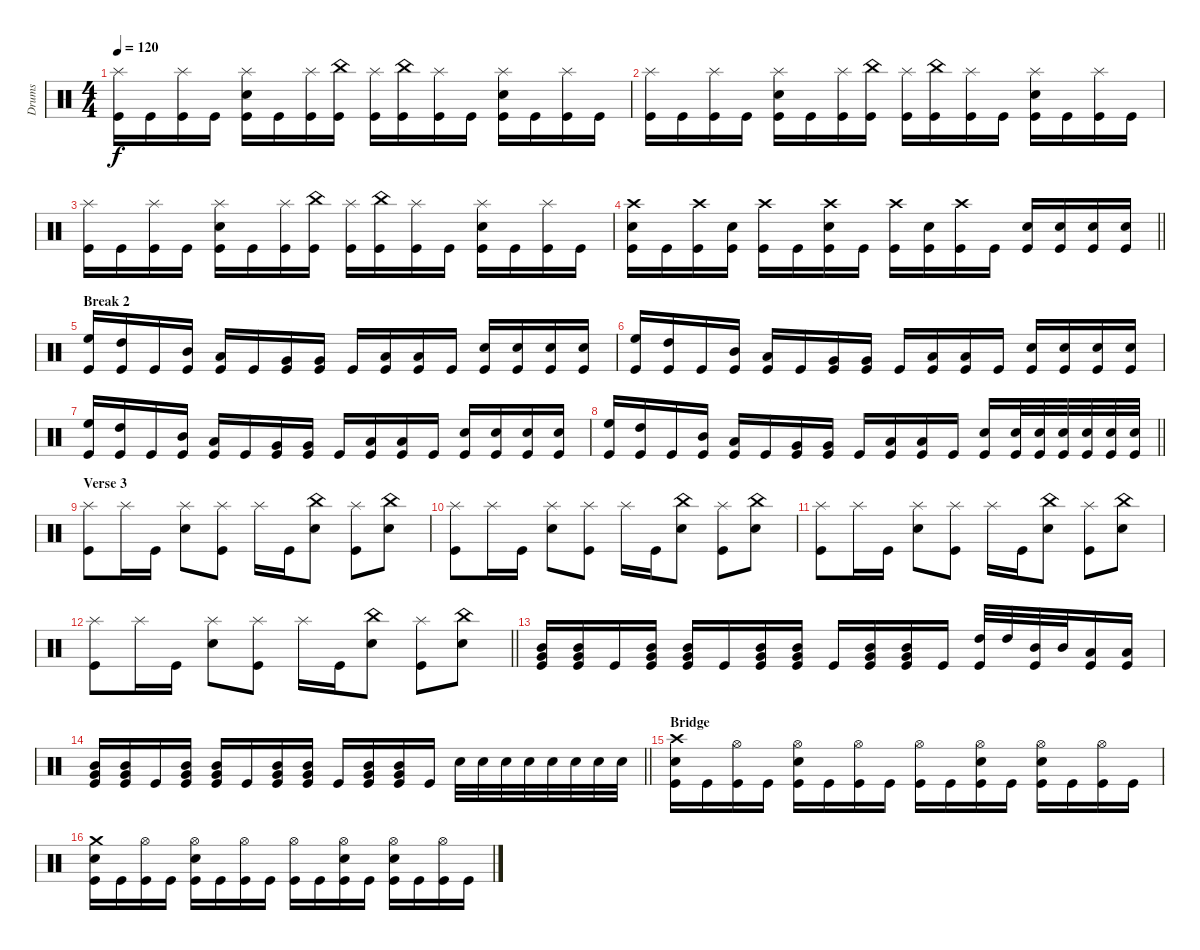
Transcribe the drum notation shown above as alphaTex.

\track ("Drums" "Drums") {instrument percussion}
\staff {score}
\articulation defaults
\ts (4 4)
\tempo 120
\clef neutral
\ks c
("Splash (hit)" "Kick (hit)").16{dy f} "Kick (hit)".16 ("Splash (hit)" "Kick (hit)").16 "Kick (hit)".16 ("Splash (hit)" "Snare (hit) 2" "Kick (hit)").16 "Kick (hit)".16 ("Splash (hit)" "Kick (hit)").16 ("China (hit)" "Kick (hit)").16 ("Splash (hit)" "Kick (hit)").16 ("China (hit)" "Kick (hit)").16 ("Splash (hit)" "Kick (hit)").16 "Kick (hit)".16 ("Splash (hit)" "Snare (hit) 2" "Kick (hit)").16 "Kick (hit)".16 ("Splash (hit)" "Kick (hit)").16 "Kick (hit)".16 |
("Splash (hit)" "Kick (hit)").16 "Kick (hit)".16 ("Splash (hit)" "Kick (hit)").16 "Kick (hit)".16 ("Splash (hit)" "Snare (hit) 2" "Kick (hit)").16 "Kick (hit)".16 ("Splash (hit)" "Kick (hit)").16 ("China (hit)" "Kick (hit)").16 ("Splash (hit)" "Kick (hit)").16 ("China (hit)" "Kick (hit)").16 ("Splash (hit)" "Kick (hit)").16 "Kick (hit)".16 ("Splash (hit)" "Snare (hit) 2" "Kick (hit)").16 "Kick (hit)".16 ("Splash (hit)" "Kick (hit)").16 "Kick (hit)".16 |
("Splash (hit)" "Kick (hit)").16 "Kick (hit)".16 ("Splash (hit)" "Kick (hit)").16 "Kick (hit)".16 ("Splash (hit)" "Snare (hit) 2" "Kick (hit)").16 "Kick (hit)".16 ("Splash (hit)" "Kick (hit)").16 ("China (hit)" "Kick (hit)").16 ("Splash (hit)" "Kick (hit)").16 ("China (hit)" "Kick (hit)").16 ("Splash (hit)" "Kick (hit)").16 "Kick (hit)".16 ("Splash (hit)" "Snare (hit) 2" "Kick (hit)").16 "Kick (hit)".16 ("Splash (hit)" "Kick (hit)").16 "Kick (hit)".16 |
\barLineRight lightlight
("Crash high (hit)" "Snare (hit) 2" "Kick (hit)").16 "Kick (hit)".16 ("Crash high (hit)" "Kick (hit)").16 ("Snare (hit) 2" "Kick (hit)").16 ("Crash high (hit)" "Kick (hit)").16 "Kick (hit)".16 ("Crash high (hit)" "Snare (hit) 2" "Kick (hit)").16 "Kick (hit)".16 ("Crash high (hit)" "Kick (hit)").16 ("Snare (hit) 2" "Kick (hit)").16 ("Crash high (hit)" "Kick (hit)").16 "Kick (hit)".16 ("Snare (hit) 2" "Kick (hit)").16 ("Snare (hit) 2" "Kick (hit)").16 ("Snare (hit) 2" "Kick (hit)").16 ("Snare (hit) 2" "Kick (hit)").16 |
\section ("" "Break 2")
("High Floor Tom (hit)" "Kick (hit)").16 ("High Tom (hit)" "Kick (hit)").16 "Kick (hit)".16 ("Mid Tom (hit)" "Kick (hit)").16 ("Low Tom (hit)" "Kick (hit)").16 "Kick (hit)".16 ("Very Low Tom (hit)" "Kick (hit)").16 ("Very Low Tom (hit)" "Kick (hit)").16 "Kick (hit)".16 ("Low Floor Tom (hit)" "Kick (hit)").16 ("Low Floor Tom (hit)" "Kick (hit)").16 "Kick (hit)".16 ("Snare (hit) 2" "Kick (hit)").16 ("Snare (hit) 2" "Kick (hit)").16 ("Snare (hit) 2" "Kick (hit)").16 ("Snare (hit) 2" "Kick (hit)").16 |
("High Floor Tom (hit)" "Kick (hit)").16 ("High Tom (hit)" "Kick (hit)").16 "Kick (hit)".16 ("Mid Tom (hit)" "Kick (hit)").16 ("Low Tom (hit)" "Kick (hit)").16 "Kick (hit)".16 ("Very Low Tom (hit)" "Kick (hit)").16 ("Very Low Tom (hit)" "Kick (hit)").16 "Kick (hit)".16 ("Low Floor Tom (hit)" "Kick (hit)").16 ("Low Floor Tom (hit)" "Kick (hit)").16 "Kick (hit)".16 ("Snare (hit) 2" "Kick (hit)").16 ("Snare (hit) 2" "Kick (hit)").16 ("Snare (hit) 2" "Kick (hit)").16 ("Snare (hit) 2" "Kick (hit)").16 |
("High Floor Tom (hit)" "Kick (hit)").16 ("High Tom (hit)" "Kick (hit)").16 "Kick (hit)".16 ("Mid Tom (hit)" "Kick (hit)").16 ("Low Tom (hit)" "Kick (hit)").16 "Kick (hit)".16 ("Very Low Tom (hit)" "Kick (hit)").16 ("Very Low Tom (hit)" "Kick (hit)").16 "Kick (hit)".16 ("Low Floor Tom (hit)" "Kick (hit)").16 ("Low Floor Tom (hit)" "Kick (hit)").16 "Kick (hit)".16 ("Snare (hit) 2" "Kick (hit)").16 ("Snare (hit) 2" "Kick (hit)").16 ("Snare (hit) 2" "Kick (hit)").16 ("Snare (hit) 2" "Kick (hit)").16 |
\barLineRight lightlight
("High Floor Tom (hit)" "Kick (hit)").16 ("High Tom (hit)" "Kick (hit)").16 "Kick (hit)".16 ("Mid Tom (hit)" "Kick (hit)").16 ("Low Tom (hit)" "Kick (hit)").16 "Kick (hit)".16 ("Very Low Tom (hit)" "Kick (hit)").16 ("Very Low Tom (hit)" "Kick (hit)").16 "Kick (hit)".16 ("Low Floor Tom (hit)" "Kick (hit)").16 ("Low Floor Tom (hit)" "Kick (hit)").16 "Kick (hit)".16 ("Snare (hit) 2" "Kick (hit)").16 ("Snare (hit) 2" "Kick (hit)").32 ("Snare (hit) 2" "Kick (hit)").32 ("Snare (hit) 2" "Kick (hit)").32 ("Snare (hit) 2" "Kick (hit)").32 ("Snare (hit) 2" "Kick (hit)").32 ("Snare (hit) 2" "Kick (hit)").32 |
\section ("" "Verse 3")
("Splash (hit)" "Kick (hit)").8 "Splash (hit)".16 "Kick (hit)".16 ("Splash (hit)" "Snare (hit) 2").8 ("Splash (hit)" "Kick (hit)").8 "Splash (hit)".16 "Kick (hit)".16 ("China (hit)" "Snare (hit) 2").8 ("Splash (hit)" "Kick (hit)").8 ("China (hit)" "Snare (hit) 2").8 |
("Splash (hit)" "Kick (hit)").8 "Splash (hit)".16 "Kick (hit)".16 ("Splash (hit)" "Snare (hit) 2").8 ("Splash (hit)" "Kick (hit)").8 "Splash (hit)".16 "Kick (hit)".16 ("China (hit)" "Snare (hit) 2").8 ("Splash (hit)" "Kick (hit)").8 ("China (hit)" "Snare (hit) 2").8 |
("Splash (hit)" "Kick (hit)").8 "Splash (hit)".16 "Kick (hit)".16 ("Splash (hit)" "Snare (hit) 2").8 ("Splash (hit)" "Kick (hit)").8 "Splash (hit)".16 "Kick (hit)".16 ("China (hit)" "Snare (hit) 2").8 ("Splash (hit)" "Kick (hit)").8 ("China (hit)" "Snare (hit) 2").8 |
\barLineRight lightlight
("Splash (hit)" "Kick (hit)").8 "Splash (hit)".16 "Kick (hit)".16 ("Splash (hit)" "Snare (hit) 2").8 ("Splash (hit)" "Kick (hit)").8 "Splash (hit)".16 "Kick (hit)".16 ("China (hit)" "Snare (hit) 2").8 ("Splash (hit)" "Kick (hit)").8 ("China (hit)" "Snare (hit) 2").8 |
("Mid Tom (hit)" "Very Low Tom (hit)" "Kick (hit)").16 ("Mid Tom (hit)" "Very Low Tom (hit)" "Kick (hit)").16 "Kick (hit)".16 ("Mid Tom (hit)" "Very Low Tom (hit)" "Kick (hit)").16 ("Mid Tom (hit)" "Very Low Tom (hit)" "Kick (hit)").16 "Kick (hit)".16 ("Mid Tom (hit)" "Very Low Tom (hit)" "Kick (hit)").16 ("Mid Tom (hit)" "Very Low Tom (hit)" "Kick (hit)").16 "Kick (hit)".16 ("Mid Tom (hit)" "Very Low Tom (hit)" "Kick (hit)").16 ("Mid Tom (hit)" "Very Low Tom (hit)" "Kick (hit)").16 "Kick (hit)".16 ("High Tom (hit)" "Kick (hit)").32 "High Tom (hit)".32 ("Mid Tom (hit)" "Kick (hit)").32 "Mid Tom (hit)".32 ("Low Tom (hit)" "Kick (hit)").16 ("Low Tom (hit)" "Kick (hit)").16 |
\barLineRight lightlight
("Mid Tom (hit)" "Very Low Tom (hit)" "Kick (hit)").16 ("Mid Tom (hit)" "Very Low Tom (hit)" "Kick (hit)").16 "Kick (hit)".16 ("Mid Tom (hit)" "Very Low Tom (hit)" "Kick (hit)").16 ("Mid Tom (hit)" "Very Low Tom (hit)" "Kick (hit)").16 "Kick (hit)".16 ("Mid Tom (hit)" "Very Low Tom (hit)" "Kick (hit)").16 ("Mid Tom (hit)" "Very Low Tom (hit)" "Kick (hit)").16 "Kick (hit)".16 ("Mid Tom (hit)" "Very Low Tom (hit)" "Kick (hit)").16 ("Mid Tom (hit)" "Very Low Tom (hit)" "Kick (hit)").16 "Kick (hit)".16 "Snare (hit) 2".32 "Snare (hit) 2".32 "Snare (hit) 2".32 "Snare (hit) 2".32 "Snare (hit) 2".32 "Snare (hit) 2".32 "Snare (hit) 2".32 "Snare (hit) 2".32 |
\section ("" "Bridge")
("Kick (hit)" "Crash high (hit)" "Snare (hit) 2").16 "Kick (hit)".16 ("Kick (hit)" "Hi-Hat (open)").16 "Kick (hit)".16 ("Kick (hit)" "Hi-Hat (open)" "Snare (hit) 2").16 "Kick (hit)".16 ("Kick (hit)" "Hi-Hat (open)").16 "Kick (hit)".16 ("Kick (hit)" "Hi-Hat (open)").16 "Kick (hit)".16 ("Kick (hit)" "Hi-Hat (open)" "Snare (hit) 2").16 "Kick (hit)".16 ("Kick (hit)" "Hi-Hat (open)" "Snare (hit) 2").16 "Kick (hit)".16 ("Kick (hit)" "Hi-Hat (open)").16 "Kick (hit)".16 |
("Kick (hit)" "Crash medium (hit)" "Snare (hit) 2").16 "Kick (hit)".16 ("Kick (hit)" "Hi-Hat (open)").16 "Kick (hit)".16 ("Kick (hit)" "Hi-Hat (open)" "Snare (hit) 2").16 "Kick (hit)".16 ("Kick (hit)" "Hi-Hat (open)").16 "Kick (hit)".16 ("Kick (hit)" "Hi-Hat (open)").16 "Kick (hit)".16 ("Kick (hit)" "Hi-Hat (open)" "Snare (hit) 2").16 "Kick (hit)".16 ("Kick (hit)" "Hi-Hat (open)" "Snare (hit) 2").16 "Kick (hit)".16 ("Kick (hit)" "Hi-Hat (open)").16 "Kick (hit)".16
